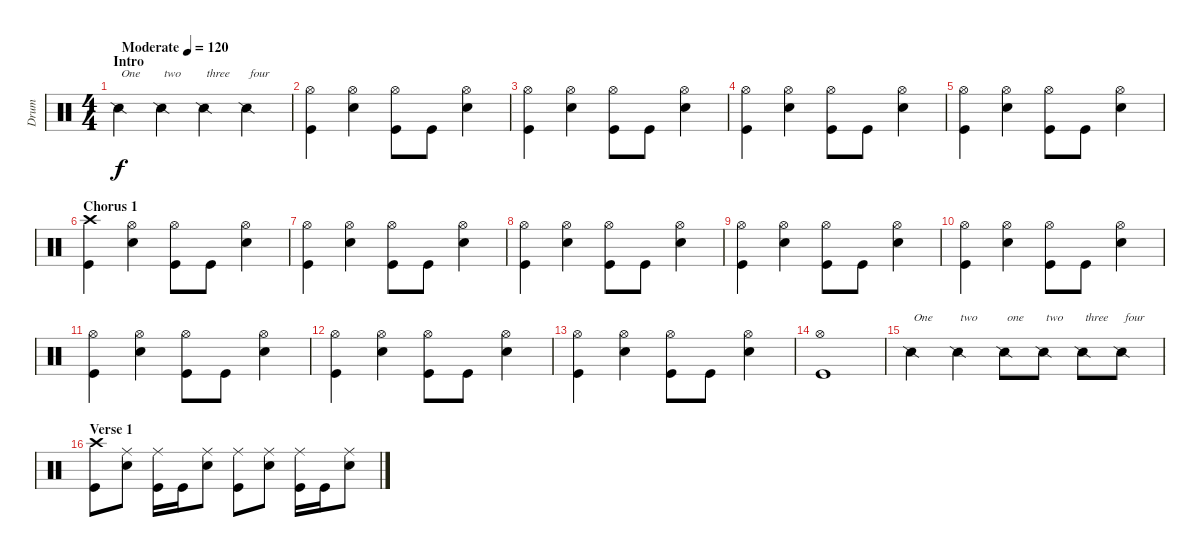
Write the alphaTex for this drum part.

\track ("Drum" "Drum") {instrument percussion}
\staff {score}
\articulation defaults
\ts (4 4)
\section ("" "Intro")
\tempo (120 "Moderate")
\clef neutral
\ks c "Snare (side stick) 2".4{txt "One" dy f} "Snare (side stick) 2".4{txt "two"} "Snare (side stick) 2".4{txt "three"} "Snare (side stick) 2".4{txt "four"}
|
("Hi-Hat (open)" "Kick (hit)").4 ("Hi-Hat (open)" "Electric Snare (hit)").4 ("Hi-Hat (open)" "Kick (hit)").8 "Kick (hit)".8 ("Hi-Hat (open)" "Electric Snare (hit)").4 |
("Hi-Hat (open)" "Kick (hit)").4 ("Hi-Hat (open)" "Electric Snare (hit)").4 ("Hi-Hat (open)" "Kick (hit)").8 "Kick (hit)".8 ("Hi-Hat (open)" "Electric Snare (hit)").4 |
("Hi-Hat (open)" "Kick (hit)").4 ("Hi-Hat (open)" "Electric Snare (hit)").4 ("Hi-Hat (open)" "Kick (hit)").8 "Kick (hit)".8 ("Hi-Hat (open)" "Electric Snare (hit)").4 |
("Hi-Hat (open)" "Kick (hit)").4 ("Hi-Hat (open)" "Electric Snare (hit)").4 ("Hi-Hat (open)" "Kick (hit)").8 "Kick (hit)".8 ("Hi-Hat (open)" "Electric Snare (hit)").4 |
\section ("" "Chorus 1")
("Crash high (hit)" "Kick (hit)").4 ("Hi-Hat (open)" "Electric Snare (hit)").4 ("Hi-Hat (open)" "Kick (hit)").8 "Kick (hit)".8 ("Hi-Hat (open)" "Electric Snare (hit)").4 |
("Hi-Hat (open)" "Kick (hit)").4 ("Hi-Hat (open)" "Electric Snare (hit)").4 ("Hi-Hat (open)" "Kick (hit)").8 "Kick (hit)".8 ("Hi-Hat (open)" "Electric Snare (hit)").4 |
("Hi-Hat (open)" "Kick (hit)").4 ("Hi-Hat (open)" "Electric Snare (hit)").4 ("Hi-Hat (open)" "Kick (hit)").8 "Kick (hit)".8 ("Hi-Hat (open)" "Electric Snare (hit)").4 |
("Hi-Hat (open)" "Kick (hit)").4 ("Hi-Hat (open)" "Electric Snare (hit)").4 ("Hi-Hat (open)" "Kick (hit)").8 "Kick (hit)".8 ("Hi-Hat (open)" "Electric Snare (hit)").4 |
("Hi-Hat (open)" "Kick (hit)").4 ("Hi-Hat (open)" "Electric Snare (hit)").4 ("Hi-Hat (open)" "Kick (hit)").8 "Kick (hit)".8 ("Hi-Hat (open)" "Electric Snare (hit)").4 |
("Hi-Hat (open)" "Kick (hit)").4 ("Hi-Hat (open)" "Electric Snare (hit)").4 ("Hi-Hat (open)" "Kick (hit)").8 "Kick (hit)".8 ("Hi-Hat (open)" "Electric Snare (hit)").4 |
("Hi-Hat (open)" "Kick (hit)").4 ("Hi-Hat (open)" "Electric Snare (hit)").4 ("Hi-Hat (open)" "Kick (hit)").8 "Kick (hit)".8 ("Hi-Hat (open)" "Electric Snare (hit)").4 |
("Hi-Hat (open)" "Kick (hit)").4 ("Hi-Hat (open)" "Electric Snare (hit)").4 ("Hi-Hat (open)" "Kick (hit)").8 "Kick (hit)".8 ("Hi-Hat (open)" "Electric Snare (hit)").4 |
("Hi-Hat (open)" "Kick (hit)").1 |
"Snare (side stick) 2".4{txt "One"} "Snare (side stick) 2".4{txt "two"} "Snare (side stick) 2".8{txt "one"} "Snare (side stick) 2".8{txt "two"} "Snare (side stick) 2".8{txt "three"} "Snare (side stick) 2".8{txt "four"} |
\section ("" "Verse 1")
("Crash high (hit)" "Kick (hit)").8 ("Ride (middle)" "Electric Snare (hit)").8 ("Ride (middle)" "Kick (hit)").16 "Kick (hit)".16 ("Ride (middle)" "Electric Snare (hit)").8 ("Ride (middle)" "Kick (hit)").8 ("Ride (middle)" "Electric Snare (hit)").8 ("Ride (middle)" "Kick (hit)").16 "Kick (hit)".16 ("Ride (middle)" "Electric Snare (hit)").8
